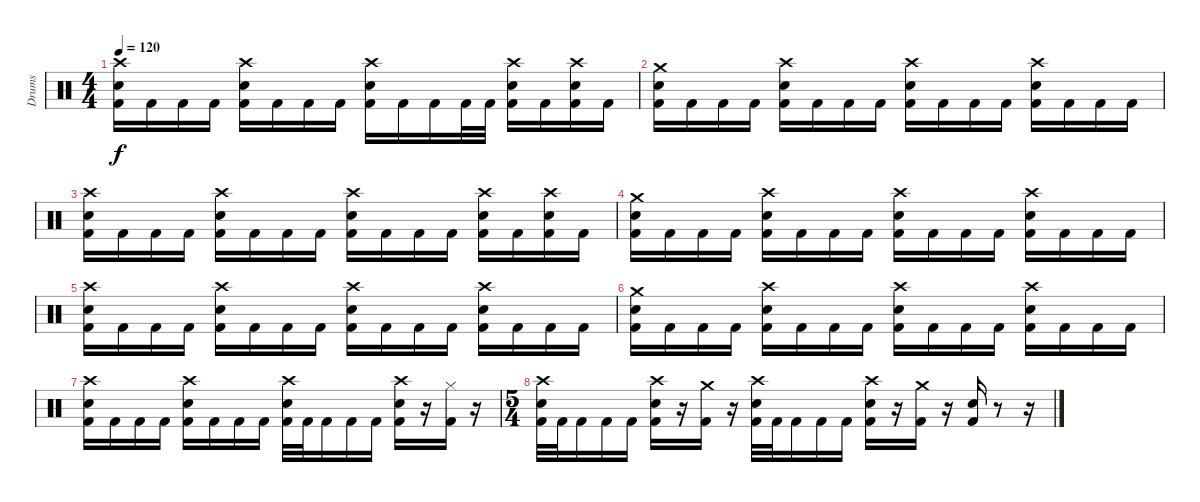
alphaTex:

\track ("Drums" "Drums") {instrument percussion}
\staff {score}
\articulation defaults
\ts (4 4)
\tempo 120
\clef neutral
\ks c
("Crash high (hit)" "Snare (hit) 2" "Kick (hit) 2").16{dy f} "Kick (hit) 2".16 "Kick (hit) 2".16 "Kick (hit) 2".16 ("Crash high (hit)" "Snare (hit) 2" "Kick (hit) 2").16 "Kick (hit) 2".16 "Kick (hit) 2".16 "Kick (hit) 2".16 ("Crash high (hit)" "Snare (hit) 2" "Kick (hit) 2").16 "Kick (hit) 2".16 "Kick (hit) 2".16 "Kick (hit) 2".32 "Kick (hit) 2".32 ("Crash high (hit)" "Snare (hit) 2" "Kick (hit) 2").16 "Kick (hit) 2".16 ("Crash high (hit)" "Snare (hit) 2" "Kick (hit) 2").16 "Kick (hit) 2".16 |
("Crash medium (hit)" "Snare (hit) 2" "Kick (hit) 2").16 "Kick (hit) 2".16 "Kick (hit) 2".16 "Kick (hit) 2".16 ("Crash high (hit)" "Snare (hit) 2" "Kick (hit) 2").16 "Kick (hit) 2".16 "Kick (hit) 2".16 "Kick (hit) 2".16 ("Crash high (hit)" "Snare (hit) 2" "Kick (hit) 2").16 "Kick (hit) 2".16 "Kick (hit) 2".16 "Kick (hit) 2".16 ("Crash high (hit)" "Snare (hit) 2" "Kick (hit) 2").16 "Kick (hit) 2".16 "Kick (hit) 2".16 "Kick (hit) 2".16 |
("Crash high (hit)" "Snare (hit) 2" "Kick (hit) 2").16 "Kick (hit) 2".16 "Kick (hit) 2".16 "Kick (hit) 2".16 ("Crash high (hit)" "Snare (hit) 2" "Kick (hit) 2").16 "Kick (hit) 2".16 "Kick (hit) 2".16 "Kick (hit) 2".16 ("Crash high (hit)" "Snare (hit) 2" "Kick (hit) 2").16 "Kick (hit) 2".16 "Kick (hit) 2".16 "Kick (hit) 2".16 ("Crash high (hit)" "Snare (hit) 2" "Kick (hit) 2").16 "Kick (hit) 2".16 ("Crash high (hit)" "Snare (hit) 2" "Kick (hit) 2").16 "Kick (hit) 2".16 |
("Crash medium (hit)" "Snare (hit) 2" "Kick (hit) 2").16 "Kick (hit) 2".16 "Kick (hit) 2".16 "Kick (hit) 2".16 ("Crash high (hit)" "Snare (hit) 2" "Kick (hit) 2").16 "Kick (hit) 2".16 "Kick (hit) 2".16 "Kick (hit) 2".16 ("Crash high (hit)" "Snare (hit) 2" "Kick (hit) 2").16 "Kick (hit) 2".16 "Kick (hit) 2".16 "Kick (hit) 2".16 ("Crash high (hit)" "Snare (hit) 2" "Kick (hit) 2").16 "Kick (hit) 2".16 "Kick (hit) 2".16 "Kick (hit) 2".16 |
("Crash high (hit)" "Snare (hit) 2" "Kick (hit) 2").16 "Kick (hit) 2".16 "Kick (hit) 2".16 "Kick (hit) 2".16 ("Crash high (hit)" "Snare (hit) 2" "Kick (hit) 2").16 "Kick (hit) 2".16 "Kick (hit) 2".16 "Kick (hit) 2".16 ("Crash high (hit)" "Snare (hit) 2" "Kick (hit) 2").16 "Kick (hit) 2".16 "Kick (hit) 2".16 "Kick (hit) 2".16 ("Crash high (hit)" "Snare (hit) 2" "Kick (hit) 2").16 "Kick (hit) 2".16 "Kick (hit) 2".16 "Kick (hit) 2".16 |
("Crash medium (hit)" "Snare (hit) 2" "Kick (hit) 2").16 "Kick (hit) 2".16 "Kick (hit) 2".16 "Kick (hit) 2".16 ("Crash high (hit)" "Snare (hit) 2" "Kick (hit) 2").16 "Kick (hit) 2".16 "Kick (hit) 2".16 "Kick (hit) 2".16 ("Crash high (hit)" "Snare (hit) 2" "Kick (hit) 2").16 "Kick (hit) 2".16 "Kick (hit) 2".16 "Kick (hit) 2".16 ("Crash high (hit)" "Snare (hit) 2" "Kick (hit) 2").16 "Kick (hit) 2".16 "Kick (hit) 2".16 "Kick (hit) 2".16 |
("Crash high (hit)" "Snare (hit) 2" "Kick (hit) 2").16 "Kick (hit) 2".16 "Kick (hit) 2".16 "Kick (hit) 2".16 ("Crash high (hit)" "Snare (hit) 2" "Kick (hit) 2").16 "Kick (hit) 2".16 "Kick (hit) 2".16 "Kick (hit) 2".16 ("Crash high (hit)" "Snare (hit) 2" "Kick (hit) 2").32 "Kick (hit) 2".32 "Kick (hit) 2".16 "Kick (hit) 2".16 "Kick (hit) 2".16 ("Crash high (hit)" "Snare (hit) 2" "Kick (hit) 2").16 r.16 ("Hi-Hat (closed)" "Kick (hit) 2").16 r.16 |
\ts (5 4)
("Crash high (hit)" "Snare (hit) 2" "Kick (hit) 2").32 "Kick (hit) 2".32 "Kick (hit) 2".16 "Kick (hit) 2".16 "Kick (hit) 2".16 ("Crash high (hit)" "Snare (hit) 2" "Kick (hit) 2").16 r.16 ("Crash medium (hit)" "Kick (hit) 2").16 r.16 ("Crash high (hit)" "Snare (hit) 2" "Kick (hit) 2").32 "Kick (hit) 2".32 "Kick (hit) 2".16 "Kick (hit) 2".16 "Kick (hit) 2".16 ("Crash high (hit)" "Snare (hit) 2" "Kick (hit) 2").16 r.16 ("Crash medium (hit)" "Kick (hit) 2").16 r.16 ("Snare (hit) 2" "Kick (hit) 2").16 r.8 r.16
